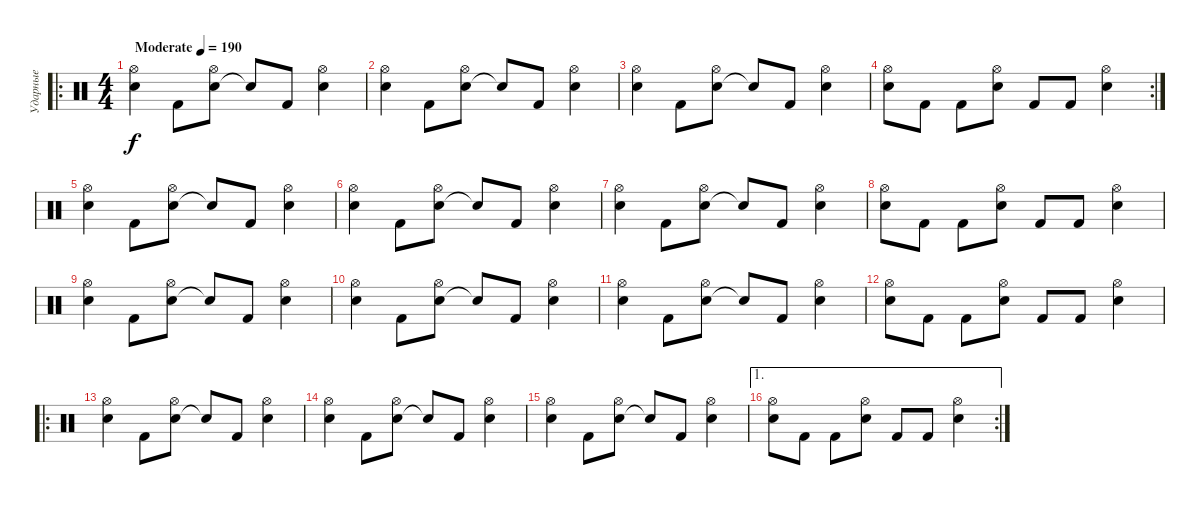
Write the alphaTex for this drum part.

\track ("Ударные" "Ударные") {instrument percussion}
\staff {score}
\articulation defaults
\ro
\ts (4 4)
\tempo (190 "Moderate")
\clef neutral
\ks c
("Snare (hit) 2" "Hi-Hat (open)").4{dy f} "Kick (hit) 2".8 ("Snare (hit) 2" "Hi-Hat (open)").8 "Snare (hit)"{t}.8 "Kick (hit) 2".8 ("Snare (hit) 2" "Hi-Hat (open)").4 |
("Snare (hit) 2" "Hi-Hat (open)").4 "Kick (hit) 2".8 ("Snare (hit) 2" "Hi-Hat (open)").8 "Snare (hit)"{t}.8 "Kick (hit) 2".8 ("Snare (hit) 2" "Hi-Hat (open)").4 |
("Snare (hit) 2" "Hi-Hat (open)").4 "Kick (hit) 2".8 ("Snare (hit) 2" "Hi-Hat (open)").8 "Snare (hit)"{t}.8 "Kick (hit) 2".8 ("Snare (hit) 2" "Hi-Hat (open)").4 |
\rc 2
("Snare (hit) 2" "Hi-Hat (open)").8 "Kick (hit) 2".8 "Kick (hit) 2".8 ("Snare (hit) 2" "Hi-Hat (open)").8 "Kick (hit) 2".8 "Kick (hit) 2".8 ("Snare (hit) 2" "Hi-Hat (open)").4 |
("Snare (hit) 2" "Hi-Hat (open)").4 "Kick (hit) 2".8 ("Snare (hit) 2" "Hi-Hat (open)").8 "Snare (hit)"{t}.8 "Kick (hit) 2".8 ("Snare (hit) 2" "Hi-Hat (open)").4 |
("Snare (hit) 2" "Hi-Hat (open)").4 "Kick (hit) 2".8 ("Snare (hit) 2" "Hi-Hat (open)").8 "Snare (hit)"{t}.8 "Kick (hit) 2".8 ("Snare (hit) 2" "Hi-Hat (open)").4 |
("Snare (hit) 2" "Hi-Hat (open)").4 "Kick (hit) 2".8 ("Snare (hit) 2" "Hi-Hat (open)").8 "Snare (hit)"{t}.8 "Kick (hit) 2".8 ("Snare (hit) 2" "Hi-Hat (open)").4 |
("Snare (hit) 2" "Hi-Hat (open)").8 "Kick (hit) 2".8 "Kick (hit) 2".8 ("Snare (hit) 2" "Hi-Hat (open)").8 "Kick (hit) 2".8 "Kick (hit) 2".8 ("Snare (hit) 2" "Hi-Hat (open)").4 |
("Snare (hit) 2" "Hi-Hat (open)").4 "Kick (hit) 2".8 ("Snare (hit) 2" "Hi-Hat (open)").8 "Snare (hit)"{t}.8 "Kick (hit) 2".8 ("Snare (hit) 2" "Hi-Hat (open)").4 |
("Snare (hit) 2" "Hi-Hat (open)").4 "Kick (hit) 2".8 ("Snare (hit) 2" "Hi-Hat (open)").8 "Snare (hit)"{t}.8 "Kick (hit) 2".8 ("Snare (hit) 2" "Hi-Hat (open)").4 |
("Snare (hit) 2" "Hi-Hat (open)").4 "Kick (hit) 2".8 ("Snare (hit) 2" "Hi-Hat (open)").8 "Snare (hit)"{t}.8 "Kick (hit) 2".8 ("Snare (hit) 2" "Hi-Hat (open)").4 |
("Snare (hit) 2" "Hi-Hat (open)").8 "Kick (hit) 2".8 "Kick (hit) 2".8 ("Snare (hit) 2" "Hi-Hat (open)").8 "Kick (hit) 2".8 "Kick (hit) 2".8 ("Snare (hit) 2" "Hi-Hat (open)").4 |
\ro
("Snare (hit) 2" "Hi-Hat (open)").4 "Kick (hit) 2".8 ("Snare (hit) 2" "Hi-Hat (open)").8 "Snare (hit)"{t}.8 "Kick (hit) 2".8 ("Snare (hit) 2" "Hi-Hat (open)").4 |
("Snare (hit) 2" "Hi-Hat (open)").4 "Kick (hit) 2".8 ("Snare (hit) 2" "Hi-Hat (open)").8 "Snare (hit)"{t}.8 "Kick (hit) 2".8 ("Snare (hit) 2" "Hi-Hat (open)").4 |
("Snare (hit) 2" "Hi-Hat (open)").4 "Kick (hit) 2".8 ("Snare (hit) 2" "Hi-Hat (open)").8 "Snare (hit)"{t}.8 "Kick (hit) 2".8 ("Snare (hit) 2" "Hi-Hat (open)").4 |
\ae 1
\rc 2
("Snare (hit) 2" "Hi-Hat (open)").8 "Kick (hit) 2".8 "Kick (hit) 2".8 ("Snare (hit) 2" "Hi-Hat (open)").8 "Kick (hit) 2".8 "Kick (hit) 2".8 ("Snare (hit) 2" "Hi-Hat (open)").4
